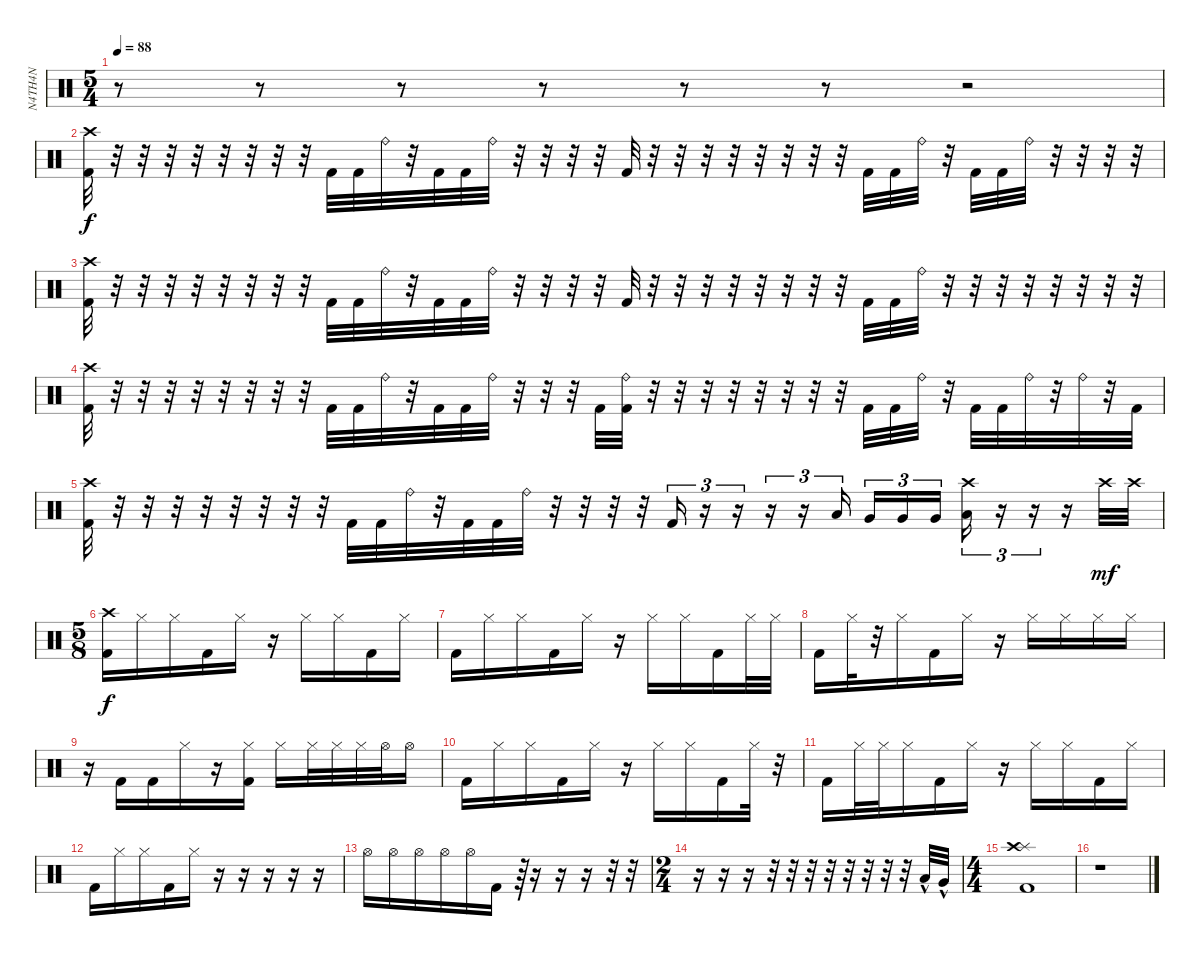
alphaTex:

\track ("N4TH4N" "N4TH4N") {instrument percussion}
\staff {score}
\articulation defaults
\ts (5 4)
\tempo 88
\clef neutral
\ks c
r.8{dy f} r.8 r.8 r.8 r.8 r.8 r.2 |
("Crash high (hit)" "Kick (hit) 2").32 r.32 r.32 r.32 r.32 r.32 r.32 r.32 r.32 "Kick (hit) 2".32 "Kick (hit) 2".32 "Ride (bell)".32 r.32 "Kick (hit) 2".32 "Kick (hit) 2".32 "Ride (bell)".32 r.32 r.32 r.32 r.32 "Kick (hit) 2".32 r.32 r.32 r.32 r.32 r.32 r.32 r.32 r.32 "Kick (hit) 2".32 "Kick (hit) 2".32 "Ride (bell)".32 r.32 "Kick (hit) 2".32 "Kick (hit) 2".32 "Ride (bell)".32 r.32 r.32 r.32 r.32 |
("Crash high (hit)" "Kick (hit) 2").32 r.32 r.32 r.32 r.32 r.32 r.32 r.32 r.32 "Kick (hit) 2".32 "Kick (hit) 2".32 "Ride (bell)".32 r.32 "Kick (hit) 2".32 "Kick (hit) 2".32 "Ride (bell)".32 r.32 r.32 r.32 r.32 "Kick (hit) 2".32 r.32 r.32 r.32 r.32 r.32 r.32 r.32 r.32 "Kick (hit) 2".32 "Kick (hit) 2".32 "Ride (bell)".32 r.32 r.32 r.32 r.32 r.32 r.32 r.32 r.32 |
("Crash high (hit)" "Kick (hit) 2").32 r.32 r.32 r.32 r.32 r.32 r.32 r.32 r.32 "Kick (hit) 2".32 "Kick (hit) 2".32 "Ride (bell)".32 r.32 "Kick (hit) 2".32 "Kick (hit) 2".32 "Ride (bell)".32 r.32 r.32 r.32 "Kick (hit) 2".32 ("Kick (hit) 2" "Ride (bell)").32 r.32 r.32 r.32 r.32 r.32 r.32 r.32 r.32 "Kick (hit) 2".32 "Kick (hit) 2".32 "Ride (bell)".32 r.32 "Kick (hit) 2".32 "Kick (hit) 2".32 "Ride (bell)".32 r.32 "Ride (bell)".32 r.32 "Kick (hit) 2".32 |
("Crash high (hit)" "Kick (hit) 2").32 r.32 r.32 r.32 r.32 r.32 r.32 r.32 r.32 "Kick (hit) 2".32 "Kick (hit) 2".32 "Ride (bell)".32 r.32 "Kick (hit) 2".32 "Kick (hit) 2".32 "Ride (bell)".32 r.32 r.32 r.32 r.32 "Kick (hit) 2".16{tu (3 2)} r.16{tu (3 2)} r.16{tu (3 2)} r.16{tu (3 2)} r.16{tu (3 2)} "Low Tom (hit)".16{tu (3 2)} "Very Low Tom (hit)".16{tu (3 2)} "Very Low Tom (hit)".16{tu (3 2)} "Very Low Tom (hit)".16{tu (3 2)} ("Low Floor Tom (hit)" "Crash high (hit)").16{tu (3 2)} r.16{tu (3 2)} r.16{tu (3 2)} r.16 "Crash high (hit)".32{dy mf} "Crash high (hit)".32 |
\ts (5 8)
("Kick (hit) 2" "Crash high (hit)").16{dy f} "Hi-Hat (closed)".16 "Hi-Hat (closed)".16 "Kick (hit) 2".16 "Hi-Hat (closed)".16 r.16 "Hi-Hat (closed)".16 "Hi-Hat (closed)".16 "Kick (hit) 2".16 "Hi-Hat (closed)".16 |
"Kick (hit) 2".16 "Hi-Hat (closed)".16 "Hi-Hat (closed)".16 "Kick (hit) 2".16 "Hi-Hat (closed)".16 r.16 "Hi-Hat (closed)".16 "Hi-Hat (closed)".16 "Kick (hit) 2".16 "Hi-Hat (closed)".32 "Hi-Hat (closed)".32 |
"Kick (hit) 2".16 "Hi-Hat (closed)".32 r.32 "Hi-Hat (closed)".16 "Kick (hit) 2".16 "Hi-Hat (closed)".16 r.16 "Hi-Hat (closed)".16 "Hi-Hat (closed)".16 "Hi-Hat (closed)".16 "Hi-Hat (closed)".16 |
r.16 "Kick (hit) 2".16 "Kick (hit) 2".16 "Hi-Hat (closed)".16 r.16 ("Hi-Hat (closed)" "Kick (hit) 2").16 "Hi-Hat (closed)".16 "Hi-Hat (closed)".32 "Hi-Hat (closed)".32 "Hi-Hat (closed)".32 "Hi-Hat (open)".32 "Hi-Hat (open)".16 |
"Kick (hit) 2".16 "Hi-Hat (closed)".16 "Hi-Hat (closed)".16 "Kick (hit) 2".16 "Hi-Hat (closed)".16 r.16 "Hi-Hat (closed)".16 "Hi-Hat (closed)".16 "Kick (hit) 2".16 "Hi-Hat (closed)".32 r.32 |
"Kick (hit) 2".16 "Hi-Hat (closed)".32 "Hi-Hat (closed)".32 "Hi-Hat (closed)".16 "Kick (hit) 2".16 "Hi-Hat (closed)".16 r.16 "Hi-Hat (closed)".16 "Hi-Hat (closed)".16 "Kick (hit) 2".16 "Hi-Hat (closed)".16 |
"Kick (hit) 2".16 "Hi-Hat (closed)".16 "Hi-Hat (closed)".16 "Kick (hit) 2".16 "Hi-Hat (closed)".16 r.16 r.16 r.16 r.16 r.16 |
"Hi-Hat (open)".16 "Hi-Hat (open)".16 "Hi-Hat (open)".16 "Hi-Hat (open)".16 "Hi-Hat (open)".16 "Kick (hit) 2".16 r.64 r.16 r.16 r.16 r.32 r.32 |
\ts (2 4)
r.16 r.16 r.16 r.32 r.32 r.32 r.32 r.32 r.32 r.32 r.32 "Low Tom (hit)"{hac}.32 "Very Low Tom (hit)"{hac}.32 |
\ts (4 4)
("Kick (hit) 2" "Splash (hit)" "Crash high (hit)").1 |
r.1
